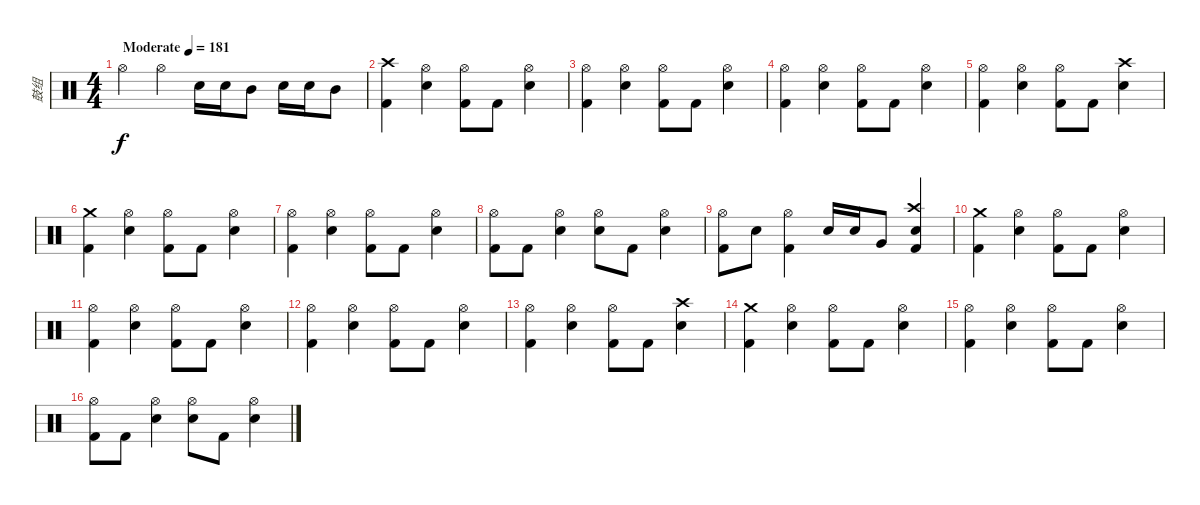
\track ("鼓组" "鼓组") {instrument percussion}
\staff {score}
\articulation defaults
\ts (4 4)
\tempo (181 "Moderate")
\clef neutral
\ks c "Hi-Hat (open)".4{dy f volume 16} "Hi-Hat (open)".4 "Snare (hit) 2".16 "Snare (hit) 2".16 "Mid Tom (hit)".8 "Snare (hit) 2".16 "Snare (hit) 2".16 "Mid Tom (hit)".8
|
("Crash high (hit)" "Kick (hit) 2").4{volume 13} ("Hi-Hat (open)" "Snare (hit) 2").4 ("Hi-Hat (open)" "Kick (hit) 2").8 "Kick (hit) 2".8 ("Hi-Hat (open)" "Snare (hit) 2").4 |
("Hi-Hat (open)" "Kick (hit) 2").4 ("Hi-Hat (open)" "Snare (hit) 2").4 ("Hi-Hat (open)" "Kick (hit) 2").8 "Kick (hit) 2".8 ("Hi-Hat (open)" "Snare (hit) 2").4 |
("Hi-Hat (open)" "Kick (hit) 2").4 ("Hi-Hat (open)" "Snare (hit) 2").4 ("Hi-Hat (open)" "Kick (hit) 2").8 "Kick (hit) 2".8 ("Hi-Hat (open)" "Snare (hit) 2").4 |
("Hi-Hat (open)" "Kick (hit) 2").4 ("Hi-Hat (open)" "Snare (hit) 2").4 ("Hi-Hat (open)" "Kick (hit) 2").8 "Kick (hit) 2".8 ("Crash high (hit)" "Snare (hit) 2").4 |
("Crash medium (hit)" "Kick (hit) 2").4 ("Hi-Hat (open)" "Snare (hit) 2").4 ("Hi-Hat (open)" "Kick (hit) 2").8 "Kick (hit) 2".8 ("Hi-Hat (open)" "Snare (hit) 2").4 |
("Hi-Hat (open)" "Kick (hit) 2").4 ("Hi-Hat (open)" "Snare (hit) 2").4 ("Hi-Hat (open)" "Kick (hit) 2").8 "Kick (hit) 2".8 ("Hi-Hat (open)" "Snare (hit) 2").4 |
("Hi-Hat (open)" "Kick (hit) 2").8 "Kick (hit) 2".8 ("Hi-Hat (open)" "Snare (hit) 2").4 ("Hi-Hat (open)" "Snare (hit) 2").8 "Kick (hit) 2".8 ("Hi-Hat (open)" "Snare (hit) 2").4 |
("Hi-Hat (open)" "Kick (hit) 2").8 "Snare (hit) 2".8 ("Hi-Hat (open)" "Kick (hit) 2").4 "Snare (hit) 2".16 "Snare (hit) 2".16 "Very Low Tom (hit)".8 ("Crash high (hit)" "Kick (hit) 2" "Snare (hit) 2").4 |
("Crash medium (hit)" "Kick (hit) 2").4 ("Hi-Hat (open)" "Snare (hit) 2").4 ("Hi-Hat (open)" "Kick (hit) 2").8 "Kick (hit) 2".8 ("Hi-Hat (open)" "Snare (hit) 2").4 |
("Hi-Hat (open)" "Kick (hit) 2").4 ("Hi-Hat (open)" "Snare (hit) 2").4 ("Hi-Hat (open)" "Kick (hit) 2").8 "Kick (hit) 2".8 ("Hi-Hat (open)" "Snare (hit) 2").4 |
("Hi-Hat (open)" "Kick (hit) 2").4 ("Hi-Hat (open)" "Snare (hit) 2").4 ("Hi-Hat (open)" "Kick (hit) 2").8 "Kick (hit) 2".8 ("Hi-Hat (open)" "Snare (hit) 2").4 |
("Hi-Hat (open)" "Kick (hit) 2").4 ("Hi-Hat (open)" "Snare (hit) 2").4 ("Hi-Hat (open)" "Kick (hit) 2").8 "Kick (hit) 2".8 ("Crash high (hit)" "Snare (hit) 2").4 |
("Crash medium (hit)" "Kick (hit) 2").4 ("Hi-Hat (open)" "Snare (hit) 2").4 ("Hi-Hat (open)" "Kick (hit) 2").8 "Kick (hit) 2".8 ("Hi-Hat (open)" "Snare (hit) 2").4 |
("Hi-Hat (open)" "Kick (hit) 2").4 ("Hi-Hat (open)" "Snare (hit) 2").4 ("Hi-Hat (open)" "Kick (hit) 2").8 "Kick (hit) 2".8 ("Hi-Hat (open)" "Snare (hit) 2").4 |
("Hi-Hat (open)" "Kick (hit) 2").8 "Kick (hit) 2".8 ("Hi-Hat (open)" "Snare (hit) 2").4 ("Hi-Hat (open)" "Snare (hit) 2").8 "Kick (hit) 2".8 ("Hi-Hat (open)" "Snare (hit) 2").4
